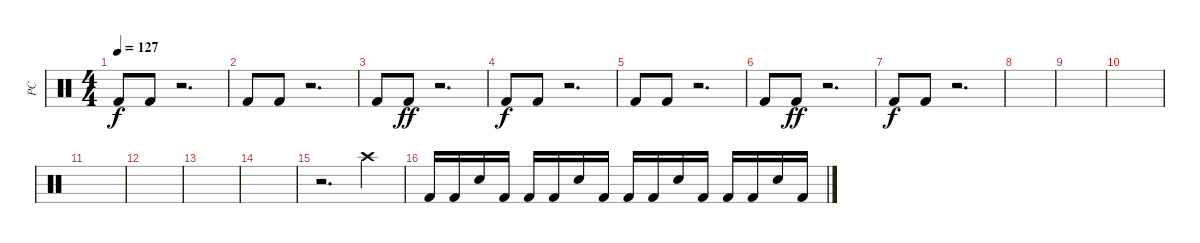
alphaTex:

\track ("PC" "PC") {instrument percussion}
\staff {score}
\articulation defaults
\ts (4 4)
\tempo 127
\clef neutral
\ks c "Kick (hit) 2".8{dy f} "Kick (hit) 2".8
r.2{d} |
"Kick (hit) 2".8 "Kick (hit) 2".8 r.2{d} |
"Kick (hit) 2".8 "Kick (hit) 2".8{dy ff} r.2{d} |
"Kick (hit) 2".8{dy f} "Kick (hit) 2".8 r.2{d} |
"Kick (hit) 2".8 "Kick (hit) 2".8 r.2{d} |
"Kick (hit) 2".8 "Kick (hit) 2".8{dy ff} r.2{d} |
"Kick (hit) 2".8{dy f} "Kick (hit) 2".8 r.2{d} |
|
|
|
|
|
|
|
r.2{d} "Crash high (hit)".4 |
"Kick (hit) 2".16 "Kick (hit) 2".16 "Snare (hit) 2".16 "Kick (hit) 2".16 "Kick (hit) 2".16 "Kick (hit) 2".16 "Snare (hit) 2".16 "Kick (hit) 2".16 "Kick (hit) 2".16 "Kick (hit) 2".16 "Snare (hit) 2".16 "Kick (hit) 2".16 "Kick (hit) 2".16 "Kick (hit) 2".16 "Snare (hit) 2".16 "Kick (hit) 2".16
